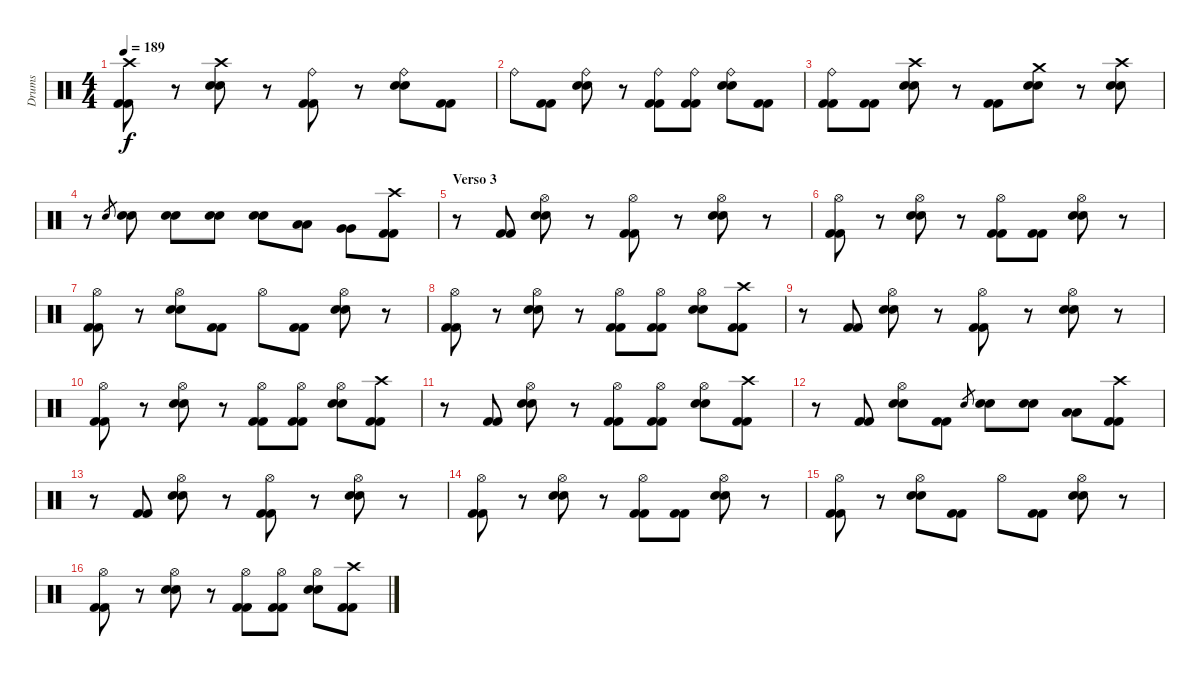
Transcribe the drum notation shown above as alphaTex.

\track ("Drums" "Drums") {instrument percussion}
\staff {score}
\articulation defaults
\ts (4 4)
\tempo 189
\clef neutral
\ks c
("Crash high (hit)" "Kick (hit) 2" "Kick (hit) 2").8{dy f} r.8 ("Crash high (hit)" "Snare (hit) 2" "Snare (hit) 2").8 r.8 ("Ride (bell)" "Kick (hit) 2" "Kick (hit) 2").8 r.8 ("Ride (bell)" "Snare (hit) 2" "Snare (hit) 2").8 ("Kick (hit) 2" "Kick (hit) 2").8 |
"Ride (bell)".8 ("Kick (hit) 2" "Kick (hit) 2").8 ("Ride (bell)" "Snare (hit) 2" "Snare (hit) 2").8 r.8 ("Ride (bell)" "Kick (hit) 2" "Kick (hit) 2").8 ("Ride (bell)" "Kick (hit) 2" "Kick (hit) 2").8 ("Ride (bell)" "Snare (hit) 2" "Snare (hit) 2").8 ("Kick (hit) 2" "Kick (hit) 2").8 |
("Ride (bell)" "Kick (hit) 2" "Kick (hit) 2").8 ("Kick (hit) 2" "Kick (hit) 2").8 ("Crash high (hit)" "Snare (hit) 2" "Snare (hit) 2").8 r.8 ("Kick (hit) 2" "Kick (hit) 2").8 ("Crash medium (hit)" "Snare (hit) 2" "Snare (hit) 2").8 r.8 ("Crash high (hit)" "Snare (hit) 2" "Snare (hit) 2").8 |
r.8 "Snare (hit) 2".8{gr} ("Snare (hit) 2" "Snare (hit) 2").8 ("Snare (hit) 2" "Snare (hit) 2").8 ("Snare (hit) 2" "Snare (hit) 2").8 ("Snare (hit) 2" "Snare (hit) 2").8 ("Low Tom (hit)" "Low Tom (hit)").8 ("Very Low Tom (hit)" "Very Low Tom (hit)").8 ("Crash high (hit)" "Kick (hit) 2" "Kick (hit) 2").8 |
\section ("" "Verso 3")
r.8 ("Kick (hit) 2" "Kick (hit) 2").8 ("Hi-Hat (open)" "Snare (hit) 2" "Snare (hit) 2").8 r.8 ("Hi-Hat (open)" "Kick (hit) 2" "Kick (hit) 2").8 r.8 ("Hi-Hat (open)" "Snare (hit) 2" "Snare (hit) 2").8 r.8 |
("Hi-Hat (open)" "Kick (hit) 2" "Kick (hit) 2").8 r.8 ("Hi-Hat (open)" "Snare (hit) 2" "Snare (hit) 2").8 r.8 ("Hi-Hat (open)" "Kick (hit) 2" "Kick (hit) 2").8 ("Kick (hit) 2" "Kick (hit) 2").8 ("Hi-Hat (open)" "Snare (hit) 2" "Snare (hit) 2").8 r.8 |
("Hi-Hat (open)" "Kick (hit) 2" "Kick (hit) 2").8 r.8 ("Hi-Hat (open)" "Snare (hit) 2" "Snare (hit) 2").8 ("Kick (hit) 2" "Kick (hit) 2").8 "Hi-Hat (open)".8 ("Kick (hit) 2" "Kick (hit) 2").8 ("Hi-Hat (open)" "Snare (hit) 2" "Snare (hit) 2").8 r.8 |
("Hi-Hat (open)" "Kick (hit) 2" "Kick (hit) 2").8 r.8 ("Hi-Hat (open)" "Snare (hit) 2" "Snare (hit) 2").8 r.8 ("Hi-Hat (open)" "Kick (hit) 2" "Kick (hit) 2").8 ("Hi-Hat (open)" "Kick (hit) 2" "Kick (hit) 2").8 ("Hi-Hat (open)" "Snare (hit) 2" "Snare (hit) 2").8 ("Crash high (hit)" "Kick (hit) 2" "Kick (hit) 2").8 |
r.8 ("Kick (hit) 2" "Kick (hit) 2").8 ("Hi-Hat (open)" "Snare (hit) 2" "Snare (hit) 2").8 r.8 ("Hi-Hat (open)" "Kick (hit) 2" "Kick (hit) 2").8 r.8 ("Hi-Hat (open)" "Snare (hit) 2" "Snare (hit) 2").8 r.8 |
("Hi-Hat (open)" "Kick (hit) 2" "Kick (hit) 2").8 r.8 ("Hi-Hat (open)" "Snare (hit) 2" "Snare (hit) 2").8 r.8 ("Hi-Hat (open)" "Kick (hit) 2" "Kick (hit) 2").8 ("Hi-Hat (open)" "Kick (hit) 2" "Kick (hit) 2").8 ("Hi-Hat (open)" "Snare (hit) 2" "Snare (hit) 2").8 ("Crash high (hit)" "Kick (hit) 2" "Kick (hit) 2").8 |
r.8 ("Kick (hit) 2" "Kick (hit) 2").8 ("Hi-Hat (open)" "Snare (hit) 2" "Snare (hit) 2").8 r.8 ("Hi-Hat (open)" "Kick (hit) 2" "Kick (hit) 2").8 ("Hi-Hat (open)" "Kick (hit) 2" "Kick (hit) 2").8 ("Hi-Hat (open)" "Snare (hit) 2" "Snare (hit) 2").8 ("Crash high (hit)" "Kick (hit) 2" "Kick (hit) 2").8 |
r.8 ("Kick (hit) 2" "Kick (hit) 2").8 ("Hi-Hat (open)" "Snare (hit) 2" "Snare (hit) 2").8 ("Kick (hit) 2" "Kick (hit) 2").8 "Snare (hit) 2".8{gr} ("Snare (hit) 2" "Snare (hit) 2").8 ("Snare (hit) 2" "Snare (hit) 2").8 ("Low Tom (hit)" "Low Tom (hit)").8 ("Crash high (hit)" "Kick (hit) 2" "Kick (hit) 2").8 |
r.8 ("Kick (hit) 2" "Kick (hit) 2").8 ("Hi-Hat (open)" "Snare (hit) 2" "Snare (hit) 2").8 r.8 ("Hi-Hat (open)" "Kick (hit) 2" "Kick (hit) 2").8 r.8 ("Hi-Hat (open)" "Snare (hit) 2" "Snare (hit) 2").8 r.8 |
("Hi-Hat (open)" "Kick (hit) 2" "Kick (hit) 2").8 r.8 ("Hi-Hat (open)" "Snare (hit) 2" "Snare (hit) 2").8 r.8 ("Hi-Hat (open)" "Kick (hit) 2" "Kick (hit) 2").8 ("Kick (hit) 2" "Kick (hit) 2").8 ("Hi-Hat (open)" "Snare (hit) 2" "Snare (hit) 2").8 r.8 |
("Hi-Hat (open)" "Kick (hit) 2" "Kick (hit) 2").8 r.8 ("Hi-Hat (open)" "Snare (hit) 2" "Snare (hit) 2").8 ("Kick (hit) 2" "Kick (hit) 2").8 "Hi-Hat (open)".8 ("Kick (hit) 2" "Kick (hit) 2").8 ("Hi-Hat (open)" "Snare (hit) 2" "Snare (hit) 2").8 r.8 |
("Hi-Hat (open)" "Kick (hit) 2" "Kick (hit) 2").8 r.8 ("Hi-Hat (open)" "Snare (hit) 2" "Snare (hit) 2").8 r.8 ("Hi-Hat (open)" "Kick (hit) 2" "Kick (hit) 2").8 ("Hi-Hat (open)" "Kick (hit) 2" "Kick (hit) 2").8 ("Hi-Hat (open)" "Snare (hit) 2" "Snare (hit) 2").8 ("Crash high (hit)" "Kick (hit) 2" "Kick (hit) 2").8
